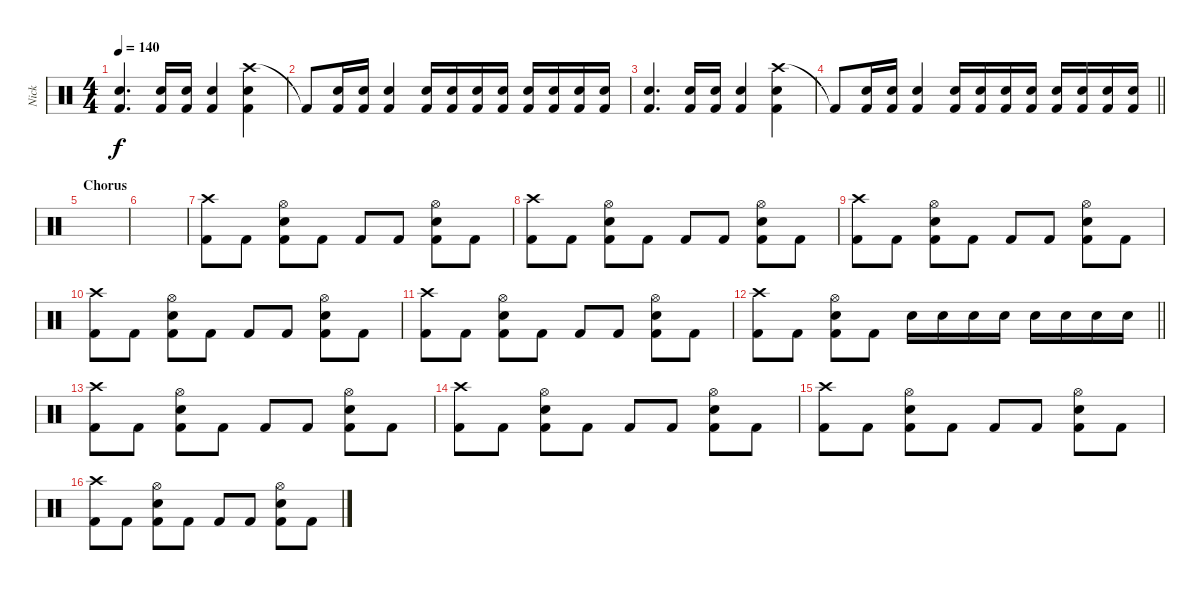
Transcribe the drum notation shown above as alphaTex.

\track ("Nick" "Nick") {instrument percussion}
\staff {score}
\articulation defaults
\ts (4 4)
\tempo 140
\clef neutral
\ks c
("Snare (hit) 2" "Kick (hit) 2").4{d dy f} ("Snare (hit) 2" "Kick (hit) 2").16 ("Snare (hit) 2" "Kick (hit) 2").16 ("Snare (hit) 2" "Kick (hit) 2").4 ("Crash high (hit)" "Snare (hit) 2" "Kick (hit) 2").4 |
"Kick (hit) 2"{t}.8 ("Snare (hit) 2" "Kick (hit) 2").16 ("Snare (hit) 2" "Kick (hit) 2").16 ("Snare (hit) 2" "Kick (hit) 2").4 ("Snare (hit) 2" "Kick (hit) 2").16 ("Snare (hit) 2" "Kick (hit) 2").16 ("Snare (hit) 2" "Kick (hit) 2").16 ("Snare (hit) 2" "Kick (hit) 2").16 ("Snare (hit) 2" "Kick (hit) 2").16 ("Snare (hit) 2" "Kick (hit) 2").16 ("Snare (hit) 2" "Kick (hit) 2").16 ("Snare (hit) 2" "Kick (hit) 2").16 |
("Snare (hit) 2" "Kick (hit) 2").4{d} ("Snare (hit) 2" "Kick (hit) 2").16 ("Snare (hit) 2" "Kick (hit) 2").16 ("Snare (hit) 2" "Kick (hit) 2").4 ("Crash high (hit)" "Snare (hit) 2" "Kick (hit) 2").4 |
\barLineRight lightlight "Kick (hit) 2"{t}.8
("Snare (hit) 2" "Kick (hit) 2").16 ("Snare (hit) 2" "Kick (hit) 2").16 ("Snare (hit) 2" "Kick (hit) 2").4 ("Snare (hit) 2" "Kick (hit) 2").16 ("Snare (hit) 2" "Kick (hit) 2").16 ("Snare (hit) 2" "Kick (hit) 2").16 ("Snare (hit) 2" "Kick (hit) 2").16 ("Snare (hit) 2" "Kick (hit) 2").16 ("Snare (hit) 2" "Kick (hit) 2").16 ("Snare (hit) 2" "Kick (hit) 2").16 ("Snare (hit) 2" "Kick (hit) 2").16 |
\section ("" "Chorus")
|
|
("Crash high (hit)" "Kick (hit) 2").8 "Kick (hit) 2".8 ("Hi-Hat (open)" "Snare (hit) 2" "Kick (hit) 2").8 "Kick (hit) 2".8 "Kick (hit) 2".8 "Kick (hit) 2".8 ("Hi-Hat (open)" "Snare (hit) 2" "Kick (hit) 2").8 "Kick (hit) 2".8 |
("Crash high (hit)" "Kick (hit) 2").8 "Kick (hit) 2".8 ("Hi-Hat (open)" "Snare (hit) 2" "Kick (hit) 2").8 "Kick (hit) 2".8 "Kick (hit) 2".8 "Kick (hit) 2".8 ("Hi-Hat (open)" "Snare (hit) 2" "Kick (hit) 2").8 "Kick (hit) 2".8 |
("Crash high (hit)" "Kick (hit) 2").8 "Kick (hit) 2".8 ("Hi-Hat (open)" "Snare (hit) 2" "Kick (hit) 2").8 "Kick (hit) 2".8 "Kick (hit) 2".8 "Kick (hit) 2".8 ("Hi-Hat (open)" "Snare (hit) 2" "Kick (hit) 2").8 "Kick (hit) 2".8 |
("Crash high (hit)" "Kick (hit) 2").8 "Kick (hit) 2".8 ("Hi-Hat (open)" "Snare (hit) 2" "Kick (hit) 2").8 "Kick (hit) 2".8 "Kick (hit) 2".8 "Kick (hit) 2".8 ("Hi-Hat (open)" "Snare (hit) 2" "Kick (hit) 2").8 "Kick (hit) 2".8 |
("Crash high (hit)" "Kick (hit) 2").8 "Kick (hit) 2".8 ("Hi-Hat (open)" "Snare (hit) 2" "Kick (hit) 2").8 "Kick (hit) 2".8 "Kick (hit) 2".8 "Kick (hit) 2".8 ("Hi-Hat (open)" "Snare (hit) 2" "Kick (hit) 2").8 "Kick (hit) 2".8 |
\barLineRight lightlight
("Crash high (hit)" "Kick (hit) 2").8 "Kick (hit) 2".8 ("Hi-Hat (open)" "Snare (hit) 2" "Kick (hit) 2").8 "Kick (hit) 2".8 "Snare (hit) 2".16 "Snare (hit) 2".16 "Snare (hit) 2".16 "Snare (hit) 2".16 "Snare (hit) 2".16 "Snare (hit) 2".16 "Snare (hit) 2".16 "Snare (hit) 2".16 |
("Crash high (hit)" "Kick (hit) 2").8 "Kick (hit) 2".8 ("Hi-Hat (open)" "Snare (hit) 2" "Kick (hit) 2").8 "Kick (hit) 2".8 "Kick (hit) 2".8 "Kick (hit) 2".8 ("Hi-Hat (open)" "Snare (hit) 2" "Kick (hit) 2").8 "Kick (hit) 2".8 |
("Crash high (hit)" "Kick (hit) 2").8 "Kick (hit) 2".8 ("Hi-Hat (open)" "Snare (hit) 2" "Kick (hit) 2").8 "Kick (hit) 2".8 "Kick (hit) 2".8 "Kick (hit) 2".8 ("Hi-Hat (open)" "Snare (hit) 2" "Kick (hit) 2").8 "Kick (hit) 2".8 |
("Crash high (hit)" "Kick (hit) 2").8 "Kick (hit) 2".8 ("Hi-Hat (open)" "Snare (hit) 2" "Kick (hit) 2").8 "Kick (hit) 2".8 "Kick (hit) 2".8 "Kick (hit) 2".8 ("Hi-Hat (open)" "Snare (hit) 2" "Kick (hit) 2").8 "Kick (hit) 2".8 |
("Crash high (hit)" "Kick (hit) 2").8 "Kick (hit) 2".8 ("Hi-Hat (open)" "Snare (hit) 2" "Kick (hit) 2").8 "Kick (hit) 2".8 "Kick (hit) 2".8 "Kick (hit) 2".8 ("Hi-Hat (open)" "Snare (hit) 2" "Kick (hit) 2").8 "Kick (hit) 2".8
